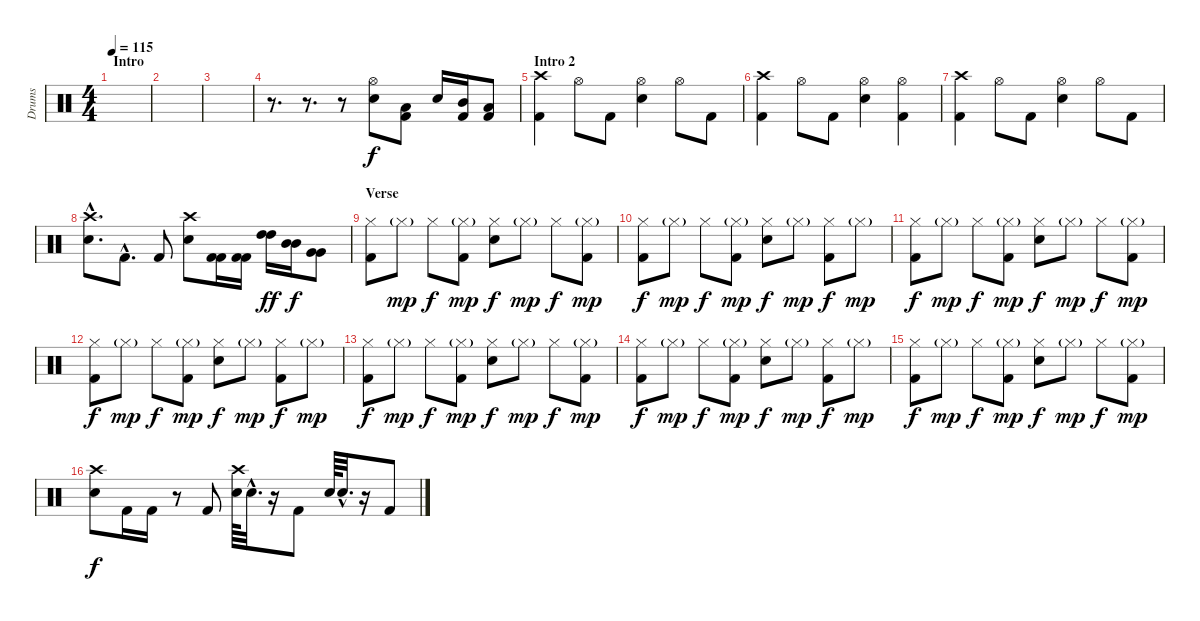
\track ("Drums" "Drums") {instrument percussion}
\staff {score}
\articulation defaults
\ts (4 4)
\section ("" "Intro")
\tempo 115
\clef neutral
\ks c
|
|
|
r.8{d} r.8{d} r.8 ("Hi-Hat (open)" "Snare (hit) 2").8 ("Low Tom (hit)" "Kick (hit) 2").8 "Snare (hit) 2".16{balance 16} ("Mid Tom (hit)" "Kick (hit) 2").16{balance 0} ("Low Tom (hit)" "Kick (hit) 2").8{balance 8} |
\section ("" "Intro 2")
("Crash high (hit)" "Kick (hit) 2").4 "Hi-Hat (open)".8 "Kick (hit) 2".8 ("Hi-Hat (open)" "Snare (hit) 2").4 "Hi-Hat (open)".8 "Kick (hit) 2".8 |
("Crash high (hit)" "Kick (hit) 2").4 "Hi-Hat (open)".8 "Kick (hit) 2".8 ("Hi-Hat (open)" "Snare (hit) 2").4 ("Hi-Hat (open)" "Kick (hit) 2").4 |
("Crash high (hit)" "Kick (hit) 2").4 "Hi-Hat (open)".8 "Kick (hit) 2".8 ("Hi-Hat (open)" "Snare (hit) 2").4 "Hi-Hat (open)".8 "Kick (hit) 2".8 |
("Crash high (hit)"{hac} "Snare (hit) 2"{hac}).8{d} "Kick (hit) 2"{hac}.8{d} "Kick (hit) 2".8 ("Crash high (hit)" "Snare (hit) 2").8 ("Kick (hit) 2" "Kick (hit) 2").16 ("Kick (hit) 2" "Kick (hit) 2").16 ("High Tom (hit)" "High Tom (hit)").16{dy ff balance 16} ("Mid Tom (hit)" "Mid Tom (hit)").16{dy f balance 0} ("Very Low Tom (hit)" "Very Low Tom (hit)").8{balance 8} |
\section ("" "Verse")
("Hi-Hat (closed)" "Kick (hit) 2").8 "Hi-Hat (closed)"{g}.8{dy mp} "Hi-Hat (closed)".8{dy f} ("Hi-Hat (closed)"{g} "Kick (hit) 2").8{dy mp} ("Hi-Hat (closed)" "Snare (hit) 2").8{dy f} "Hi-Hat (closed)"{g}.8{dy mp} "Hi-Hat (closed)".8{dy f} ("Hi-Hat (closed)"{g} "Kick (hit) 2").8{dy mp} |
("Hi-Hat (closed)" "Kick (hit) 2").8{dy f} "Hi-Hat (closed)"{g}.8{dy mp} "Hi-Hat (closed)".8{dy f} ("Hi-Hat (closed)"{g} "Kick (hit) 2").8{dy mp} ("Hi-Hat (closed)" "Snare (hit) 2").8{dy f} "Hi-Hat (closed)"{g}.8{dy mp} ("Hi-Hat (closed)" "Kick (hit) 2").8{dy f} "Hi-Hat (closed)"{g}.8{dy mp} |
("Hi-Hat (closed)" "Kick (hit) 2").8{dy f} "Hi-Hat (closed)"{g}.8{dy mp} "Hi-Hat (closed)".8{dy f} ("Hi-Hat (closed)"{g} "Kick (hit) 2").8{dy mp} ("Hi-Hat (closed)" "Snare (hit) 2").8{dy f} "Hi-Hat (closed)"{g}.8{dy mp} "Hi-Hat (closed)".8{dy f} ("Hi-Hat (closed)"{g} "Kick (hit) 2").8{dy mp} |
("Hi-Hat (closed)" "Kick (hit) 2").8{dy f} "Hi-Hat (closed)"{g}.8{dy mp} "Hi-Hat (closed)".8{dy f} ("Hi-Hat (closed)"{g} "Kick (hit) 2").8{dy mp} ("Hi-Hat (closed)" "Snare (hit) 2").8{dy f} "Hi-Hat (closed)"{g}.8{dy mp} ("Hi-Hat (closed)" "Kick (hit) 2").8{dy f} "Hi-Hat (closed)"{g}.8{dy mp} |
("Hi-Hat (closed)" "Kick (hit) 2").8{dy f} "Hi-Hat (closed)"{g}.8{dy mp} "Hi-Hat (closed)".8{dy f} ("Hi-Hat (closed)"{g} "Kick (hit) 2").8{dy mp} ("Hi-Hat (closed)" "Snare (hit) 2").8{dy f} "Hi-Hat (closed)"{g}.8{dy mp} "Hi-Hat (closed)".8{dy f} ("Hi-Hat (closed)"{g} "Kick (hit) 2").8{dy mp} |
("Hi-Hat (closed)" "Kick (hit) 2").8{dy f} "Hi-Hat (closed)"{g}.8{dy mp} "Hi-Hat (closed)".8{dy f} ("Hi-Hat (closed)"{g} "Kick (hit) 2").8{dy mp} ("Hi-Hat (closed)" "Snare (hit) 2").8{dy f} "Hi-Hat (closed)"{g}.8{dy mp} ("Hi-Hat (closed)" "Kick (hit) 2").8{dy f} "Hi-Hat (closed)"{g}.8{dy mp} |
("Hi-Hat (closed)" "Kick (hit) 2").8{dy f} "Hi-Hat (closed)"{g}.8{dy mp} "Hi-Hat (closed)".8{dy f} ("Hi-Hat (closed)"{g} "Kick (hit) 2").8{dy mp} ("Hi-Hat (closed)" "Snare (hit) 2").8{dy f} "Hi-Hat (closed)"{g}.8{dy mp} "Hi-Hat (closed)".8{dy f} ("Hi-Hat (closed)"{g} "Kick (hit) 2").8{dy mp} |
("Crash high (hit)" "Snare (hit) 2").8{dy f} "Kick (hit) 2".16 "Kick (hit) 2".16 r.8 "Kick (hit) 2".8 ("Crash high (hit)" "Snare (hit) 2").64 "Snare (hit) 2"{hac}.32{d} r.16 "Kick (hit) 2".8 "Snare (hit) 2".64 "Snare (hit) 2"{hac}.32{d} r.16 "Kick (hit) 2".8
